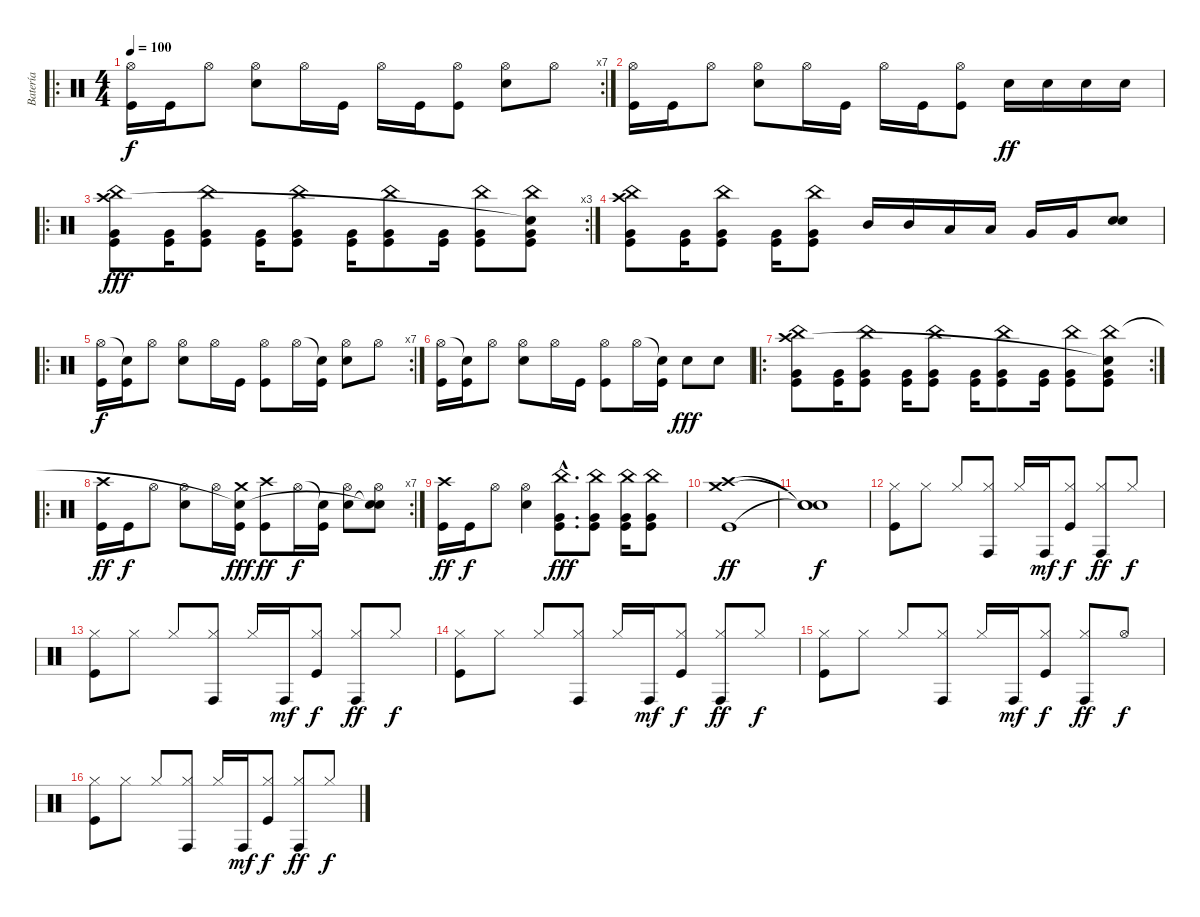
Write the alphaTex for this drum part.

\track ("Batería" "Batería") {instrument percussion}
\staff {score}
\articulation defaults
\ro
\rc 7
\ts (4 4)
\tempo 100
\clef neutral
\ks c
("Hi-Hat (open)" "Kick (hit)").16{dy f} "Kick (hit)".16 "Hi-Hat (open)".8 ("Hi-Hat (open)" "Snare (hit) 2").8 "Hi-Hat (open)".16 "Kick (hit)".16 "Hi-Hat (open)".16 "Kick (hit)".16 ("Hi-Hat (open)" "Kick (hit)").8 ("Hi-Hat (open)" "Snare (hit) 2").8 "Hi-Hat (open)".8 |
("Hi-Hat (open)" "Kick (hit)").16 "Kick (hit)".16 "Hi-Hat (open)".8 ("Hi-Hat (open)" "Snare (hit) 2").8 "Hi-Hat (open)".16 "Kick (hit)".16 "Hi-Hat (open)".16 "Kick (hit)".16 ("Hi-Hat (open)" "Kick (hit)").8 "Snare (hit) 2".16{dy ff} "Snare (hit) 2".16 "Snare (hit) 2".16 "Snare (hit) 2".16 |
\ro
\rc 3
("Kick (hit)" "Very Low Tom (hit)" "China (hit)" "Crash high (hit)").8{dy fff} ("Kick (hit)" "Very Low Tom (hit)").16 ("Kick (hit)" "Very Low Tom (hit)" "China (hit)").8 ("Kick (hit)" "Very Low Tom (hit)").16 ("Kick (hit)" "Very Low Tom (hit)" "China (hit)").8 ("Kick (hit)" "Very Low Tom (hit)").16 ("Kick (hit)" "Very Low Tom (hit)" "China (hit)").8 ("Kick (hit)" "Very Low Tom (hit)").16 ("Kick (hit)" "Very Low Tom (hit)" "China (hit)").8 ("Kick (hit)" "Very Low Tom (hit)" "China (hit)" "Snare (hit)"{t}).8 |
("Kick (hit)" "Very Low Tom (hit)" "China (hit)" "Crash high (hit)").8 ("Kick (hit)" "Very Low Tom (hit)").16 ("Kick (hit)" "Very Low Tom (hit)" "China (hit)").8 ("Kick (hit)" "Very Low Tom (hit)").16 ("Kick (hit)" "Very Low Tom (hit)" "China (hit)").8 "Mid Tom (hit)".16 "Mid Tom (hit)".16 "Low Tom (hit)".16 "Low Tom (hit)".16 "Very Low Tom (hit)".16 "Very Low Tom (hit)".16 ("Snare (hit) 2" "Snare (hit) 2").8 |
\ro
\rc 7
("Hi-Hat (open)" "Kick (hit)").16{dy f} ("Snare (hit)"{t} "Kick (hit)").16 "Hi-Hat (open)".8 ("Hi-Hat (open)" "Snare (hit) 2").8 "Hi-Hat (open)".16 "Kick (hit)".16 ("Hi-Hat (open)" "Kick (hit)").8 "Hi-Hat (open)".16 ("Snare (hit)"{t} "Kick (hit)").16 ("Hi-Hat (open)" "Snare (hit) 2").8 "Hi-Hat (open)".8 |
("Hi-Hat (open)" "Kick (hit)").16 ("Snare (hit)"{t} "Kick (hit)").16 "Hi-Hat (open)".8 ("Hi-Hat (open)" "Snare (hit) 2").8 "Hi-Hat (open)".16 "Kick (hit)".16 ("Hi-Hat (open)" "Kick (hit)").8 "Hi-Hat (open)".16 ("Snare (hit)"{t} "Kick (hit)").16 "Snare (hit) 2".8{dy fff} "Snare (hit) 2".8 |
\ro
\rc 2
("Kick (hit)" "Very Low Tom (hit)" "China (hit)" "Crash high (hit)").8 ("Kick (hit)" "Very Low Tom (hit)").16 ("Kick (hit)" "Very Low Tom (hit)" "China (hit)").8 ("Kick (hit)" "Very Low Tom (hit)").16 ("Kick (hit)" "Very Low Tom (hit)" "China (hit)").8 ("Kick (hit)" "Very Low Tom (hit)").16 ("Kick (hit)" "Very Low Tom (hit)" "China (hit)").8 ("Kick (hit)" "Very Low Tom (hit)").16 ("Kick (hit)" "Very Low Tom (hit)" "China (hit)").8 ("Kick (hit)" "Very Low Tom (hit)" "China (hit)" "Snare (hit)"{t}).8 |
\ro
\rc 7
("Kick (hit)" "Crash high (hit)").16{dy ff} "Kick (hit)".16{dy f} "Hi-Hat (open)".8 ("Hi-Hat (open)" "Snare (hit) 2").8 "Hi-Hat (open)".16 ("Kick (hit)" "Crash medium (hit)" "Snare (hit)"{t}).16{dy fff} ("Kick (hit)" "Crash high (hit)").8{dy ff} "Hi-Hat (open)".16{dy f} ("Snare (hit)"{t} "Kick (hit)").16 ("Hi-Hat (open)" "Snare (hit) 2").8 ("Hi-Hat (open)" "Snare (hit)"{t} "Snare (hit)"{t}).8 |
("Kick (hit)" "Crash high (hit)").16{dy ff} "Kick (hit)".16{dy f} "Hi-Hat (open)".8 ("Hi-Hat (open)" "Snare (hit) 2").4 ("Kick (hit)"{hac} "Very Low Tom (hit)"{hac} "China (hit)"{hac}).8{d dy fff} ("Kick (hit)" "Very Low Tom (hit)" "China (hit)").8 ("Kick (hit)" "Very Low Tom (hit)" "China (hit)").16 ("Kick (hit)" "Very Low Tom (hit)" "China (hit)").8 |
("Kick (hit)" "Crash medium (hit)" "Crash high (hit)").1{dy ff} |
("Snare (hit)"{t} "Snare (hit)"{t} "Snare (hit)"{t}).1{dy f} |
("Hi-Hat (closed)" "Kick (hit)").8 "Hi-Hat (closed)".8 "Hi-Hat (closed)".8 ("Hi-Hat (closed)" "Conga high (hit)").8 "Hi-Hat (closed)".16 "Conga high (hit)".16{dy mf} ("Hi-Hat (closed)" "Kick (hit)").8{dy f} ("Hi-Hat (closed)" "Conga high (hit)").8{dy ff} "Hi-Hat (closed)".8{dy f} |
("Hi-Hat (closed)" "Kick (hit)").8 "Hi-Hat (closed)".8 "Hi-Hat (closed)".8 ("Hi-Hat (closed)" "Conga high (hit)").8 "Hi-Hat (closed)".16 "Conga high (hit)".16{dy mf} ("Hi-Hat (closed)" "Kick (hit)").8{dy f} ("Hi-Hat (closed)" "Conga high (hit)").8{dy ff} "Hi-Hat (closed)".8{dy f} |
("Hi-Hat (closed)" "Kick (hit)").8 "Hi-Hat (closed)".8 "Hi-Hat (closed)".8 ("Hi-Hat (closed)" "Conga high (hit)").8 "Hi-Hat (closed)".16 "Conga high (hit)".16{dy mf} ("Hi-Hat (closed)" "Kick (hit)").8{dy f} ("Hi-Hat (closed)" "Conga high (hit)").8{dy ff} "Hi-Hat (closed)".8{dy f} |
("Hi-Hat (closed)" "Kick (hit)").8 "Hi-Hat (closed)".8 "Hi-Hat (closed)".8 ("Hi-Hat (closed)" "Conga high (hit)").8 "Hi-Hat (closed)".16 "Conga high (hit)".16{dy mf} ("Hi-Hat (closed)" "Kick (hit)").8{dy f} ("Hi-Hat (closed)" "Conga high (hit)").8{dy ff} "Hi-Hat (open)".8{dy f} |
("Hi-Hat (closed)" "Kick (hit)").8 "Hi-Hat (closed)".8 "Hi-Hat (closed)".8 ("Hi-Hat (closed)" "Conga high (hit)").8 "Hi-Hat (closed)".16 "Conga high (hit)".16{dy mf} ("Hi-Hat (closed)" "Kick (hit)").8{dy f} ("Hi-Hat (closed)" "Conga high (hit)").8{dy ff} "Hi-Hat (closed)".8{dy f}
